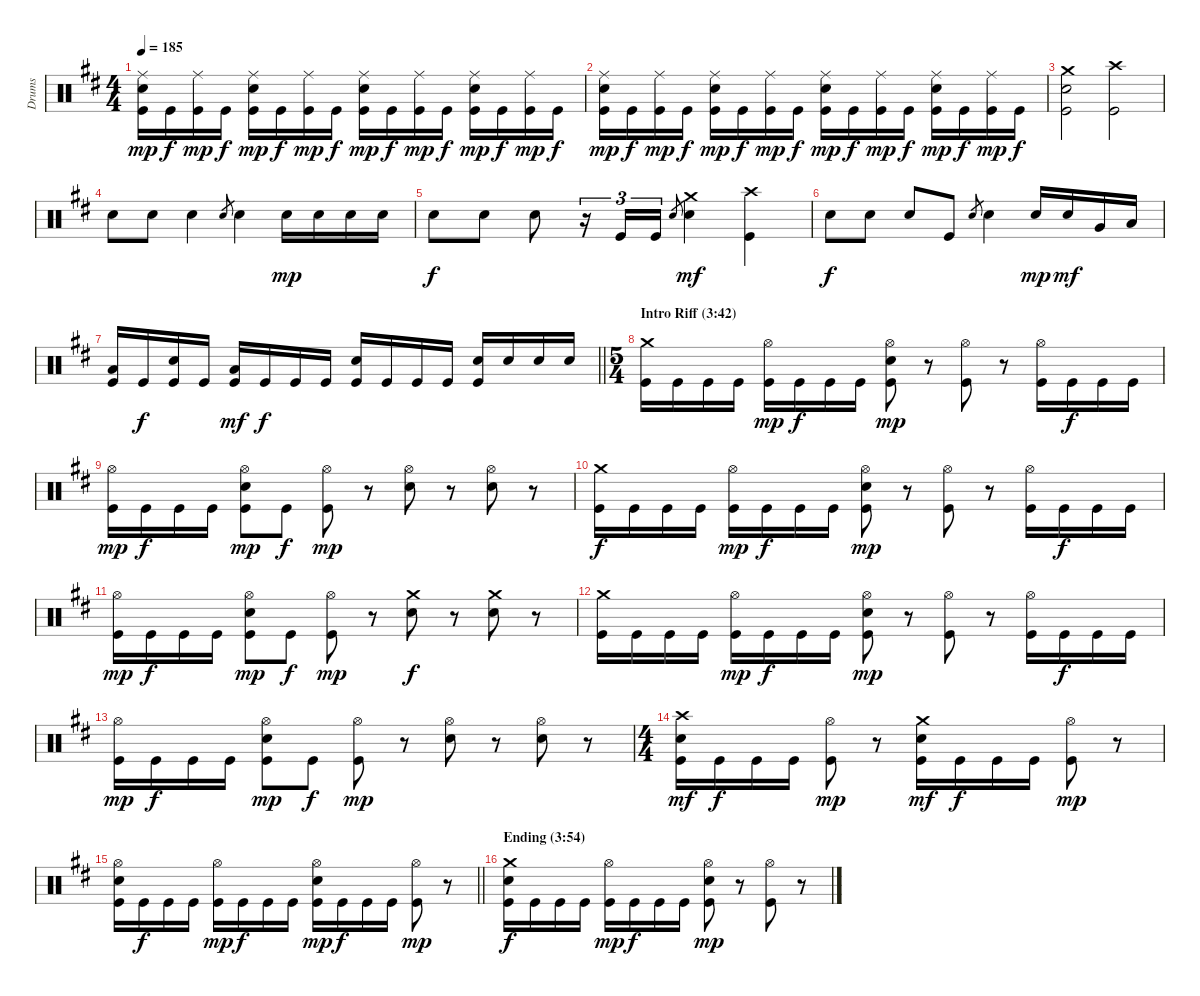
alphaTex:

\track ("Drums" "Drums") {instrument percussion}
\staff {score}
\articulation defaults
\ts (4 4)
\tempo 185
\clef neutral
\ks bminor
("Ride (middle)" "Snare (hit) 2" "Kick (hit)").16{dy mp} "Kick (hit)".16{dy f} ("Ride (middle)" "Kick (hit)").16{dy mp} "Kick (hit)".16{dy f} ("Ride (middle)" "Snare (hit) 2" "Kick (hit)").16{dy mp} "Kick (hit)".16{dy f} ("Ride (middle)" "Kick (hit)").16{dy mp} "Kick (hit)".16{dy f} ("Ride (middle)" "Snare (hit) 2" "Kick (hit)").16{dy mp} "Kick (hit)".16{dy f} ("Ride (middle)" "Kick (hit)").16{dy mp} "Kick (hit)".16{dy f} ("Ride (middle)" "Snare (hit) 2" "Kick (hit)").16{dy mp} "Kick (hit)".16{dy f} ("Ride (middle)" "Kick (hit)").16{dy mp} "Kick (hit)".16{dy f} |
("Ride (middle)" "Snare (hit) 2" "Kick (hit)").16{dy mp} "Kick (hit)".16{dy f} ("Ride (middle)" "Kick (hit)").16{dy mp} "Kick (hit)".16{dy f} ("Ride (middle)" "Snare (hit) 2" "Kick (hit)").16{dy mp} "Kick (hit)".16{dy f} ("Ride (middle)" "Kick (hit)").16{dy mp} "Kick (hit)".16{dy f} ("Ride (middle)" "Snare (hit) 2" "Kick (hit)").16{dy mp} "Kick (hit)".16{dy f} ("Ride (middle)" "Kick (hit)").16{dy mp} "Kick (hit)".16{dy f} ("Ride (middle)" "Snare (hit) 2" "Kick (hit)").16{dy mp} "Kick (hit)".16{dy f} ("Ride (middle)" "Kick (hit)").16{dy mp} "Kick (hit)".16{dy f} |
("Crash medium (hit)" "Snare (hit) 2" "Kick (hit)").2 ("Crash high (hit)" "Kick (hit)").2 |
"Snare (hit) 2".8 "Snare (hit) 2".8 "Snare (hit) 2".4 "Snare (hit) 2".8{gr} "Snare (hit) 2".4 "Snare (hit) 2".16{dy mp} "Snare (hit) 2".16 "Snare (hit) 2".16 "Snare (hit) 2".16 |
"Snare (hit) 2".8{dy f} "Snare (hit) 2".8 "Snare (hit) 2".8 r.16{tu (3 2)} "Kick (hit)".16{tu (3 2)} "Kick (hit)".16{tu (3 2)} "Snare (hit) 2".8{gr} ("Crash medium (hit)" "Snare (hit) 2").4{dy mf} ("Crash high (hit)" "Kick (hit)").4 |
"Snare (hit) 2".8{dy f} "Snare (hit) 2".8 "Snare (hit) 2".8 "Kick (hit)".8 "Snare (hit) 2".8{gr} "Snare (hit) 2".4 "Snare (hit) 2".16{dy mp} "Snare (hit) 2".16{dy mf} "Very Low Tom (hit)".16 "Low Floor Tom (hit)".16 |
\barLineRight lightlight
("Low Floor Tom (hit)" "Kick (hit)").16 "Kick (hit)".16{dy f} ("Snare (hit) 2" "Kick (hit)").16 "Kick (hit)".16 ("Low Floor Tom (hit)" "Kick (hit)").16{dy mf} "Kick (hit)".16{dy f} "Kick (hit)".16 "Kick (hit)".16 ("Snare (hit) 2" "Kick (hit)").16 "Kick (hit)".16 "Kick (hit)".16 "Kick (hit)".16 ("Snare (hit) 2" "Kick (hit)").16 "Snare (hit) 2".16 "Snare (hit) 2".16 "Snare (hit) 2".16 |
\ts (5 4)
\section ("" "Intro Riff (3:42)")
("Crash medium (hit)" "Kick (hit)").16 "Kick (hit)".16 "Kick (hit)".16 "Kick (hit)".16 ("Hi-Hat (open)" "Kick (hit)").16{dy mp} "Kick (hit)".16{dy f} "Kick (hit)".16 "Kick (hit)".16 ("Hi-Hat (open)" "Snare (hit) 2" "Kick (hit)").8{dy mp} r.8 ("Hi-Hat (open)" "Kick (hit)").8 r.8 ("Hi-Hat (open)" "Kick (hit)").16 "Kick (hit)".16{dy f} "Kick (hit)".16 "Kick (hit)".16 |
("Hi-Hat (open)" "Kick (hit)").16{dy mp} "Kick (hit)".16{dy f} "Kick (hit)".16 "Kick (hit)".16 ("Hi-Hat (open)" "Snare (hit) 2" "Kick (hit)").8{dy mp} "Kick (hit)".8{dy f} ("Hi-Hat (open)" "Kick (hit)").8{dy mp} r.8 ("Hi-Hat (open)" "Snare (hit) 2").8 r.8 ("Hi-Hat (open)" "Snare (hit) 2").8 r.8 |
("Crash medium (hit)" "Kick (hit)").16{dy f} "Kick (hit)".16 "Kick (hit)".16 "Kick (hit)".16 ("Hi-Hat (open)" "Kick (hit)").16{dy mp} "Kick (hit)".16{dy f} "Kick (hit)".16 "Kick (hit)".16 ("Hi-Hat (open)" "Snare (hit) 2" "Kick (hit)").8{dy mp} r.8 ("Hi-Hat (open)" "Kick (hit)").8 r.8 ("Hi-Hat (open)" "Kick (hit)").16 "Kick (hit)".16{dy f} "Kick (hit)".16 "Kick (hit)".16 |
("Hi-Hat (open)" "Kick (hit)").16{dy mp} "Kick (hit)".16{dy f} "Kick (hit)".16 "Kick (hit)".16 ("Hi-Hat (open)" "Snare (hit) 2" "Kick (hit)").8{dy mp} "Kick (hit)".8{dy f} ("Hi-Hat (open)" "Kick (hit)").8{dy mp} r.8 ("Crash medium (hit)" "Snare (hit) 2").8{dy f} r.8 ("Crash medium (hit)" "Snare (hit) 2").8 r.8 |
("Crash medium (hit)" "Kick (hit)").16 "Kick (hit)".16 "Kick (hit)".16 "Kick (hit)".16 ("Hi-Hat (open)" "Kick (hit)").16{dy mp} "Kick (hit)".16{dy f} "Kick (hit)".16 "Kick (hit)".16 ("Hi-Hat (open)" "Snare (hit) 2" "Kick (hit)").8{dy mp} r.8 ("Hi-Hat (open)" "Kick (hit)").8 r.8 ("Hi-Hat (open)" "Kick (hit)").16 "Kick (hit)".16{dy f} "Kick (hit)".16 "Kick (hit)".16 |
("Hi-Hat (open)" "Kick (hit)").16{dy mp} "Kick (hit)".16{dy f} "Kick (hit)".16 "Kick (hit)".16 ("Hi-Hat (open)" "Snare (hit) 2" "Kick (hit)").8{dy mp} "Kick (hit)".8{dy f} ("Hi-Hat (open)" "Kick (hit)").8{dy mp} r.8 ("Hi-Hat (open)" "Snare (hit) 2").8 r.8 ("Hi-Hat (open)" "Snare (hit) 2").8 r.8 |
\ts (4 4)
("Crash high (hit)" "Snare (hit) 2" "Kick (hit)").16{dy mf} "Kick (hit)".16{dy f} "Kick (hit)".16 "Kick (hit)".16 ("Hi-Hat (open)" "Kick (hit)").8{dy mp} r.8 ("Crash medium (hit)" "Snare (hit) 2" "Kick (hit)").16{dy mf} "Kick (hit)".16{dy f} "Kick (hit)".16 "Kick (hit)".16 ("Hi-Hat (open)" "Kick (hit)").8{dy mp} r.8 |
\barLineRight lightlight
("Hi-Hat (open)" "Snare (hit) 2" "Kick (hit)").16 "Kick (hit)".16{dy f} "Kick (hit)".16 "Kick (hit)".16 ("Hi-Hat (open)" "Kick (hit)").16{dy mp} "Kick (hit)".16{dy f} "Kick (hit)".16 "Kick (hit)".16 ("Hi-Hat (open)" "Snare (hit) 2" "Kick (hit)").16{dy mp} "Kick (hit)".16{dy f} "Kick (hit)".16 "Kick (hit)".16 ("Hi-Hat (open)" "Kick (hit)").8{dy mp} r.8 |
\section ("" "Ending (3:54)")
("Crash medium (hit)" "Snare (hit) 2" "Kick (hit)").16{dy f} "Kick (hit)".16 "Kick (hit)".16 "Kick (hit)".16 ("Hi-Hat (open)" "Kick (hit)").16{dy mp} "Kick (hit)".16{dy f} "Kick (hit)".16 "Kick (hit)".16 ("Hi-Hat (open)" "Snare (hit) 2" "Kick (hit)").8{dy mp} r.8 ("Hi-Hat (open)" "Kick (hit)").8 r.8
